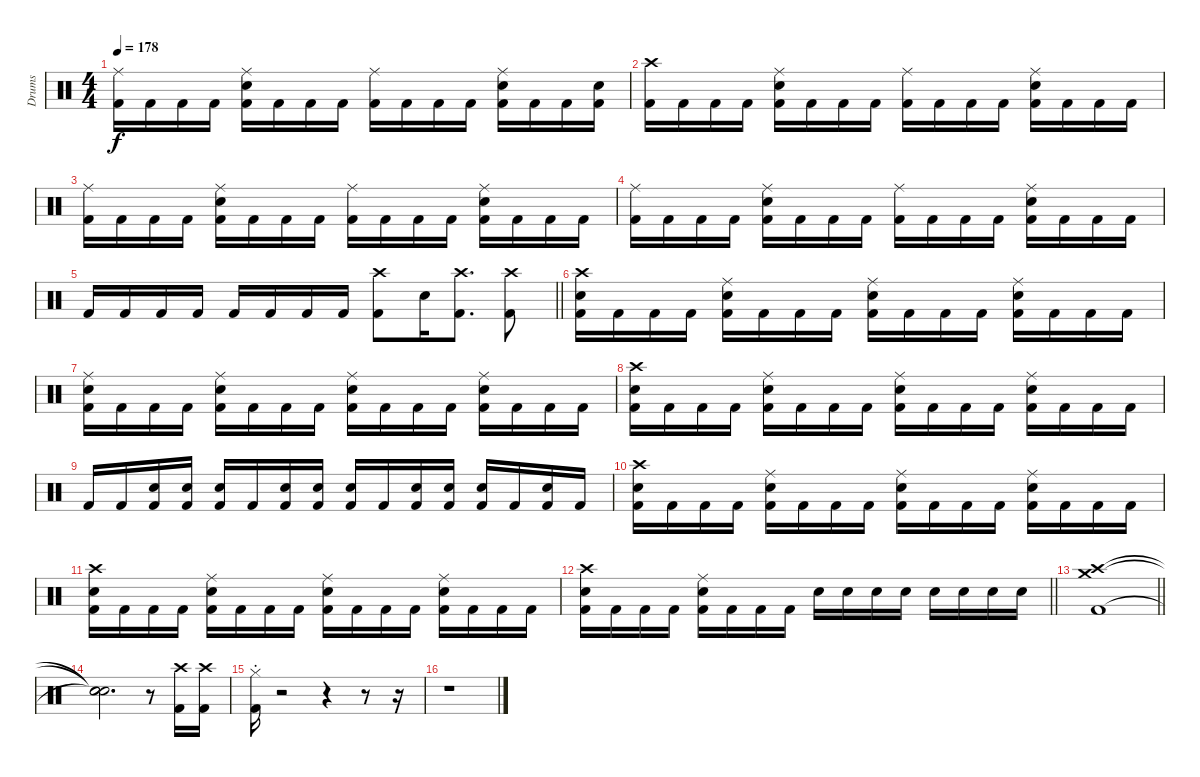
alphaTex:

\track ("Drums" "Drums") {instrument percussion}
\staff {score}
\articulation defaults
\ts (4 4)
\tempo 178
\clef neutral
\ks c
("Ride (middle)" "Kick (hit) 2").16{dy f} "Kick (hit) 2".16 "Kick (hit) 2".16 "Kick (hit) 2".16 ("Ride (middle)" "Snare (hit) 2" "Kick (hit) 2").16 "Kick (hit) 2".16 "Kick (hit) 2".16 "Kick (hit) 2".16 ("Ride (middle)" "Kick (hit) 2").16 "Kick (hit) 2".16 "Kick (hit) 2".16 "Kick (hit) 2".16 ("Ride (middle)" "Snare (hit) 2" "Kick (hit) 2").16 "Kick (hit) 2".16 "Kick (hit) 2".16 ("Snare (hit) 2" "Kick (hit) 2").16 |
("Crash high (hit)" "Kick (hit) 2").16 "Kick (hit) 2".16 "Kick (hit) 2".16 "Kick (hit) 2".16 ("Ride (middle)" "Snare (hit) 2" "Kick (hit) 2").16 "Kick (hit) 2".16 "Kick (hit) 2".16 "Kick (hit) 2".16 ("Ride (middle)" "Kick (hit) 2").16 "Kick (hit) 2".16 "Kick (hit) 2".16 "Kick (hit) 2".16 ("Ride (middle)" "Snare (hit) 2" "Kick (hit) 2").16 "Kick (hit) 2".16 "Kick (hit) 2".16 "Kick (hit) 2".16 |
("Ride (middle)" "Kick (hit) 2").16 "Kick (hit) 2".16 "Kick (hit) 2".16 "Kick (hit) 2".16 ("Ride (middle)" "Snare (hit) 2" "Kick (hit) 2").16 "Kick (hit) 2".16 "Kick (hit) 2".16 "Kick (hit) 2".16 ("Ride (middle)" "Kick (hit) 2").16 "Kick (hit) 2".16 "Kick (hit) 2".16 "Kick (hit) 2".16 ("Ride (middle)" "Snare (hit) 2" "Kick (hit) 2").16 "Kick (hit) 2".16 "Kick (hit) 2".16 "Kick (hit) 2".16 |
("Ride (middle)" "Kick (hit) 2").16 "Kick (hit) 2".16 "Kick (hit) 2".16 "Kick (hit) 2".16 ("Ride (middle)" "Snare (hit) 2" "Kick (hit) 2").16 "Kick (hit) 2".16 "Kick (hit) 2".16 "Kick (hit) 2".16 ("Ride (middle)" "Kick (hit) 2").16 "Kick (hit) 2".16 "Kick (hit) 2".16 "Kick (hit) 2".16 ("Ride (middle)" "Snare (hit) 2" "Kick (hit) 2").16 "Kick (hit) 2".16 "Kick (hit) 2".16 "Kick (hit) 2".16 |
\barLineRight lightlight "Kick (hit) 2".16 "Kick (hit) 2".16 "Kick (hit) 2".16 "Kick (hit) 2".16 "Kick (hit) 2".16 "Kick (hit) 2".16 "Kick (hit) 2".16 "Kick (hit) 2".16
("Crash high (hit)" "Kick (hit) 2").8 "Snare (hit) 2".16 ("Crash high (hit)" "Kick (hit) 2").8{d} ("Crash high (hit)" "Kick (hit) 2").8 |
("Crash high (hit)" "Snare (hit) 2" "Kick (hit) 2").16 "Kick (hit) 2".16 "Kick (hit) 2".16 "Kick (hit) 2".16 ("Ride (middle)" "Snare (hit) 2" "Kick (hit) 2").16 "Kick (hit) 2".16 "Kick (hit) 2".16 "Kick (hit) 2".16 ("Ride (middle)" "Snare (hit) 2" "Kick (hit) 2").16 "Kick (hit) 2".16 "Kick (hit) 2".16 "Kick (hit) 2".16 ("Ride (middle)" "Snare (hit) 2" "Kick (hit) 2").16 "Kick (hit) 2".16 "Kick (hit) 2".16 "Kick (hit) 2".16 |
("Ride (middle)" "Snare (hit) 2" "Kick (hit) 2").16 "Kick (hit) 2".16 "Kick (hit) 2".16 "Kick (hit) 2".16 ("Ride (middle)" "Snare (hit) 2" "Kick (hit) 2").16 "Kick (hit) 2".16 "Kick (hit) 2".16 "Kick (hit) 2".16 ("Ride (middle)" "Snare (hit) 2" "Kick (hit) 2").16 "Kick (hit) 2".16 "Kick (hit) 2".16 "Kick (hit) 2".16 ("Ride (middle)" "Snare (hit) 2" "Kick (hit) 2").16 "Kick (hit) 2".16 "Kick (hit) 2".16 "Kick (hit) 2".16 |
("Crash high (hit)" "Snare (hit) 2" "Kick (hit) 2").16 "Kick (hit) 2".16 "Kick (hit) 2".16 "Kick (hit) 2".16 ("Ride (middle)" "Snare (hit) 2" "Kick (hit) 2").16 "Kick (hit) 2".16 "Kick (hit) 2".16 "Kick (hit) 2".16 ("Ride (middle)" "Snare (hit) 2" "Kick (hit) 2").16 "Kick (hit) 2".16 "Kick (hit) 2".16 "Kick (hit) 2".16 ("Ride (middle)" "Snare (hit) 2" "Kick (hit) 2").16 "Kick (hit) 2".16 "Kick (hit) 2".16 "Kick (hit) 2".16 |
"Kick (hit) 2".16 "Kick (hit) 2".16 ("Snare (hit) 2" "Kick (hit) 2").16 ("Snare (hit) 2" "Kick (hit) 2").16 ("Snare (hit) 2" "Kick (hit) 2").16 "Kick (hit) 2".16 ("Snare (hit) 2" "Kick (hit) 2").16 ("Snare (hit) 2" "Kick (hit) 2").16 ("Snare (hit) 2" "Kick (hit) 2").16 "Kick (hit) 2".16 ("Snare (hit) 2" "Kick (hit) 2").16 ("Snare (hit) 2" "Kick (hit) 2").16 ("Snare (hit) 2" "Kick (hit) 2").16 "Kick (hit) 2".16 ("Snare (hit) 2" "Kick (hit) 2").16 "Kick (hit) 2".16 |
("Crash high (hit)" "Snare (hit) 2" "Kick (hit) 2").16 "Kick (hit) 2".16 "Kick (hit) 2".16 "Kick (hit) 2".16 ("Ride (middle)" "Snare (hit) 2" "Kick (hit) 2").16 "Kick (hit) 2".16 "Kick (hit) 2".16 "Kick (hit) 2".16 ("Ride (middle)" "Snare (hit) 2" "Kick (hit) 2").16 "Kick (hit) 2".16 "Kick (hit) 2".16 "Kick (hit) 2".16 ("Ride (middle)" "Snare (hit) 2" "Kick (hit) 2").16 "Kick (hit) 2".16 "Kick (hit) 2".16 "Kick (hit) 2".16 |
("Crash high (hit)" "Snare (hit) 2" "Kick (hit) 2").16 "Kick (hit) 2".16 "Kick (hit) 2".16 "Kick (hit) 2".16 ("Ride (middle)" "Snare (hit) 2" "Kick (hit) 2").16 "Kick (hit) 2".16 "Kick (hit) 2".16 "Kick (hit) 2".16 ("Ride (middle)" "Snare (hit) 2" "Kick (hit) 2").16 "Kick (hit) 2".16 "Kick (hit) 2".16 "Kick (hit) 2".16 ("Ride (middle)" "Snare (hit) 2" "Kick (hit) 2").16 "Kick (hit) 2".16 "Kick (hit) 2".16 "Kick (hit) 2".16 |
\barLineRight lightlight
("Crash high (hit)" "Snare (hit) 2" "Kick (hit) 2").16 "Kick (hit) 2".16 "Kick (hit) 2".16 "Kick (hit) 2".16 ("Ride (middle)" "Snare (hit) 2" "Kick (hit) 2").16 "Kick (hit) 2".16 "Kick (hit) 2".16 "Kick (hit) 2".16 "Snare (hit) 2".16 "Snare (hit) 2".16 "Snare (hit) 2".16 "Snare (hit) 2".16 "Snare (hit) 2".16 "Snare (hit) 2".16 "Snare (hit) 2".16 "Snare (hit) 2".16 |
\barLineRight lightlight
("Crash medium (hit)" "Crash high (hit)" "Kick (hit) 2").1 |
("Snare (hit)"{t} "Snare (hit)"{t} "Snare (hit)"{t}).2{d} r.8 ("Crash high (hit)" "Kick (hit) 2").16 ("Crash high (hit)" "Kick (hit) 2").16 |
("Hi-Hat (closed)" "Kick (hit) 2"{st}).16 r.2 r.4 r.8 r.16 |
r.1
